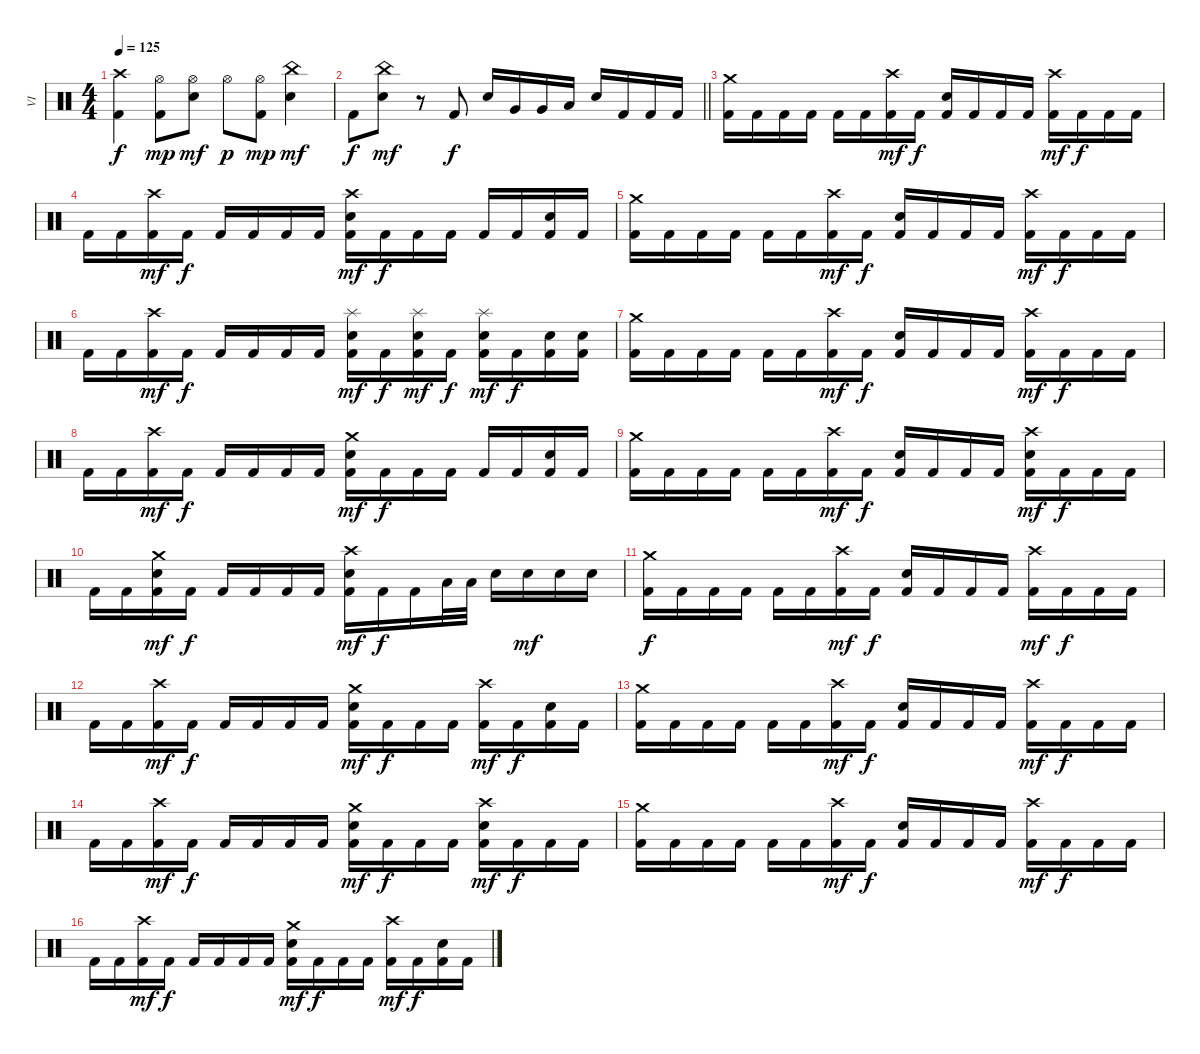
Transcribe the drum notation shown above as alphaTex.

\track ("VI" "VI") {instrument percussion}
\staff {score}
\articulation defaults
\ts (4 4)
\tempo 125
\clef neutral
\ks c
("Crash high (hit)" "Kick (hit) 2").4{dy f} ("Hi-Hat (open)" "Kick (hit) 2").8{dy mp} ("Hi-Hat (open)" "Electric Snare (hit)").8{dy mf} "Hi-Hat (open)".8{dy p} ("Hi-Hat (open)" "Kick (hit) 2").8{dy mp} ("China (hit)" "Electric Snare (hit)").4{dy mf} |
\barLineRight lightlight "Kick (hit) 2".8{dy f}
("China (hit)" "Electric Snare (hit)").8{dy mf} r.8 "Kick (hit) 2".8{dy f} "Electric Snare (hit)".16 "Very Low Tom (hit)".16 "Very Low Tom (hit)".16 "Low Floor Tom (hit)".16 "Electric Snare (hit)".16 "Kick (hit) 2".16 "Kick (hit) 2".16 "Kick (hit) 2".16 |
\section ("" "")
("Crash medium (hit)" "Kick (hit) 2").16 "Kick (hit) 2".16 "Kick (hit) 2".16 "Kick (hit) 2".16 "Kick (hit) 2".16 "Kick (hit) 2".16 ("Crash high (hit)" "Kick (hit) 2").16{dy mf} "Kick (hit) 2".16{dy f} ("Electric Snare (hit)" "Kick (hit) 2").16 "Kick (hit) 2".16 "Kick (hit) 2".16 "Kick (hit) 2".16 ("Crash high (hit)" "Kick (hit) 2").16{dy mf} "Kick (hit) 2".16{dy f} "Kick (hit) 2".16 "Kick (hit) 2".16 |
"Kick (hit) 2".16 "Kick (hit) 2".16 ("Crash high (hit)" "Kick (hit) 2").16{dy mf} "Kick (hit) 2".16{dy f} "Kick (hit) 2".16 "Kick (hit) 2".16 "Kick (hit) 2".16 "Kick (hit) 2".16 ("Crash high (hit)" "Electric Snare (hit)" "Kick (hit) 2").16{dy mf} "Kick (hit) 2".16{dy f} "Kick (hit) 2".16 "Kick (hit) 2".16 "Kick (hit) 2".16 "Kick (hit) 2".16 ("Electric Snare (hit)" "Kick (hit) 2").16 "Kick (hit) 2".16 |
("Crash medium (hit)" "Kick (hit) 2").16 "Kick (hit) 2".16 "Kick (hit) 2".16 "Kick (hit) 2".16 "Kick (hit) 2".16 "Kick (hit) 2".16 ("Crash high (hit)" "Kick (hit) 2").16{dy mf} "Kick (hit) 2".16{dy f} ("Electric Snare (hit)" "Kick (hit) 2").16 "Kick (hit) 2".16 "Kick (hit) 2".16 "Kick (hit) 2".16 ("Crash high (hit)" "Kick (hit) 2").16{dy mf} "Kick (hit) 2".16{dy f} "Kick (hit) 2".16 "Kick (hit) 2".16 |
"Kick (hit) 2".16 "Kick (hit) 2".16 ("Crash high (hit)" "Kick (hit) 2").16{dy mf} "Kick (hit) 2".16{dy f} "Kick (hit) 2".16 "Kick (hit) 2".16 "Kick (hit) 2".16 "Kick (hit) 2".16 ("Splash (hit)" "Electric Snare (hit)" "Kick (hit) 2").16{dy mf} "Kick (hit) 2".16{dy f} ("Splash (hit)" "Electric Snare (hit)" "Kick (hit) 2").16{dy mf} "Kick (hit) 2".16{dy f} ("Splash (hit)" "Electric Snare (hit)" "Kick (hit) 2").16{dy mf} "Kick (hit) 2".16{dy f} ("Electric Snare (hit)" "Kick (hit) 2").16 ("Electric Snare (hit)" "Kick (hit) 2").16 |
("Crash medium (hit)" "Kick (hit) 2").16 "Kick (hit) 2".16 "Kick (hit) 2".16 "Kick (hit) 2".16 "Kick (hit) 2".16 "Kick (hit) 2".16 ("Crash high (hit)" "Kick (hit) 2").16{dy mf} "Kick (hit) 2".16{dy f} ("Electric Snare (hit)" "Kick (hit) 2").16 "Kick (hit) 2".16 "Kick (hit) 2".16 "Kick (hit) 2".16 ("Crash high (hit)" "Kick (hit) 2").16{dy mf} "Kick (hit) 2".16{dy f} "Kick (hit) 2".16 "Kick (hit) 2".16 |
"Kick (hit) 2".16 "Kick (hit) 2".16 ("Crash high (hit)" "Kick (hit) 2").16{dy mf} "Kick (hit) 2".16{dy f} "Kick (hit) 2".16 "Kick (hit) 2".16 "Kick (hit) 2".16 "Kick (hit) 2".16 ("Crash medium (hit)" "Electric Snare (hit)" "Kick (hit) 2").16{dy mf} "Kick (hit) 2".16{dy f} "Kick (hit) 2".16 "Kick (hit) 2".16 "Kick (hit) 2".16 "Kick (hit) 2".16 ("Electric Snare (hit)" "Kick (hit) 2").16 "Kick (hit) 2".16 |
("Crash medium (hit)" "Kick (hit) 2").16 "Kick (hit) 2".16 "Kick (hit) 2".16 "Kick (hit) 2".16 "Kick (hit) 2".16 "Kick (hit) 2".16 ("Crash high (hit)" "Kick (hit) 2").16{dy mf} "Kick (hit) 2".16{dy f} ("Electric Snare (hit)" "Kick (hit) 2").16 "Kick (hit) 2".16 "Kick (hit) 2".16 "Kick (hit) 2".16 ("Crash high (hit)" "Electric Snare (hit)" "Kick (hit) 2").16{dy mf} "Kick (hit) 2".16{dy f} "Kick (hit) 2".16 "Kick (hit) 2".16 |
"Kick (hit) 2".16 "Kick (hit) 2".16 ("Crash medium (hit)" "Electric Snare (hit)" "Kick (hit) 2").16{dy mf} "Kick (hit) 2".16{dy f} "Kick (hit) 2".16 "Kick (hit) 2".16 "Kick (hit) 2".16 "Kick (hit) 2".16 ("Crash high (hit)" "Electric Snare (hit)" "Kick (hit) 2").16{dy mf} "Kick (hit) 2".16{dy f} "Kick (hit) 2".16 "Low Floor Tom (hit)".32 "Low Floor Tom (hit)".32 "Electric Snare (hit)".16 "Electric Snare (hit)".16{dy mf} "Electric Snare (hit)".16 "Electric Snare (hit)".16 |
("Crash medium (hit)" "Kick (hit) 2").16{dy f} "Kick (hit) 2".16 "Kick (hit) 2".16 "Kick (hit) 2".16 "Kick (hit) 2".16 "Kick (hit) 2".16 ("Crash high (hit)" "Kick (hit) 2").16{dy mf} "Kick (hit) 2".16{dy f} ("Electric Snare (hit)" "Kick (hit) 2").16 "Kick (hit) 2".16 "Kick (hit) 2".16 "Kick (hit) 2".16 ("Crash high (hit)" "Kick (hit) 2").16{dy mf} "Kick (hit) 2".16{dy f} "Kick (hit) 2".16 "Kick (hit) 2".16 |
"Kick (hit) 2".16 "Kick (hit) 2".16 ("Crash high (hit)" "Kick (hit) 2").16{dy mf} "Kick (hit) 2".16{dy f} "Kick (hit) 2".16 "Kick (hit) 2".16 "Kick (hit) 2".16 "Kick (hit) 2".16 ("Crash medium (hit)" "Electric Snare (hit)" "Kick (hit) 2").16{dy mf} "Kick (hit) 2".16{dy f} "Kick (hit) 2".16 "Kick (hit) 2".16 ("Crash high (hit)" "Kick (hit) 2").16{dy mf} "Kick (hit) 2".16{dy f} ("Electric Snare (hit)" "Kick (hit) 2").16 "Kick (hit) 2".16 |
("Crash medium (hit)" "Kick (hit) 2").16 "Kick (hit) 2".16 "Kick (hit) 2".16 "Kick (hit) 2".16 "Kick (hit) 2".16 "Kick (hit) 2".16 ("Crash high (hit)" "Kick (hit) 2").16{dy mf} "Kick (hit) 2".16{dy f} ("Electric Snare (hit)" "Kick (hit) 2").16 "Kick (hit) 2".16 "Kick (hit) 2".16 "Kick (hit) 2".16 ("Crash high (hit)" "Kick (hit) 2").16{dy mf} "Kick (hit) 2".16{dy f} "Kick (hit) 2".16 "Kick (hit) 2".16 |
"Kick (hit) 2".16 "Kick (hit) 2".16 ("Crash high (hit)" "Kick (hit) 2").16{dy mf} "Kick (hit) 2".16{dy f} "Kick (hit) 2".16 "Kick (hit) 2".16 "Kick (hit) 2".16 "Kick (hit) 2".16 ("Crash medium (hit)" "Electric Snare (hit)" "Kick (hit) 2").16{dy mf} "Kick (hit) 2".16{dy f} "Kick (hit) 2".16 "Kick (hit) 2".16 ("Crash high (hit)" "Electric Snare (hit)" "Kick (hit) 2").16{dy mf} "Kick (hit) 2".16{dy f} "Kick (hit) 2".16 "Kick (hit) 2".16 |
("Crash medium (hit)" "Kick (hit) 2").16 "Kick (hit) 2".16 "Kick (hit) 2".16 "Kick (hit) 2".16 "Kick (hit) 2".16 "Kick (hit) 2".16 ("Crash high (hit)" "Kick (hit) 2").16{dy mf} "Kick (hit) 2".16{dy f} ("Electric Snare (hit)" "Kick (hit) 2").16 "Kick (hit) 2".16 "Kick (hit) 2".16 "Kick (hit) 2".16 ("Crash high (hit)" "Kick (hit) 2").16{dy mf} "Kick (hit) 2".16{dy f} "Kick (hit) 2".16 "Kick (hit) 2".16 |
"Kick (hit) 2".16 "Kick (hit) 2".16 ("Crash high (hit)" "Kick (hit) 2").16{dy mf} "Kick (hit) 2".16{dy f} "Kick (hit) 2".16 "Kick (hit) 2".16 "Kick (hit) 2".16 "Kick (hit) 2".16 ("Crash medium (hit)" "Electric Snare (hit)" "Kick (hit) 2").16{dy mf} "Kick (hit) 2".16{dy f} "Kick (hit) 2".16 "Kick (hit) 2".16 ("Crash high (hit)" "Kick (hit) 2").16{dy mf} "Kick (hit) 2".16{dy f} ("Electric Snare (hit)" "Kick (hit) 2").16 "Kick (hit) 2".16
